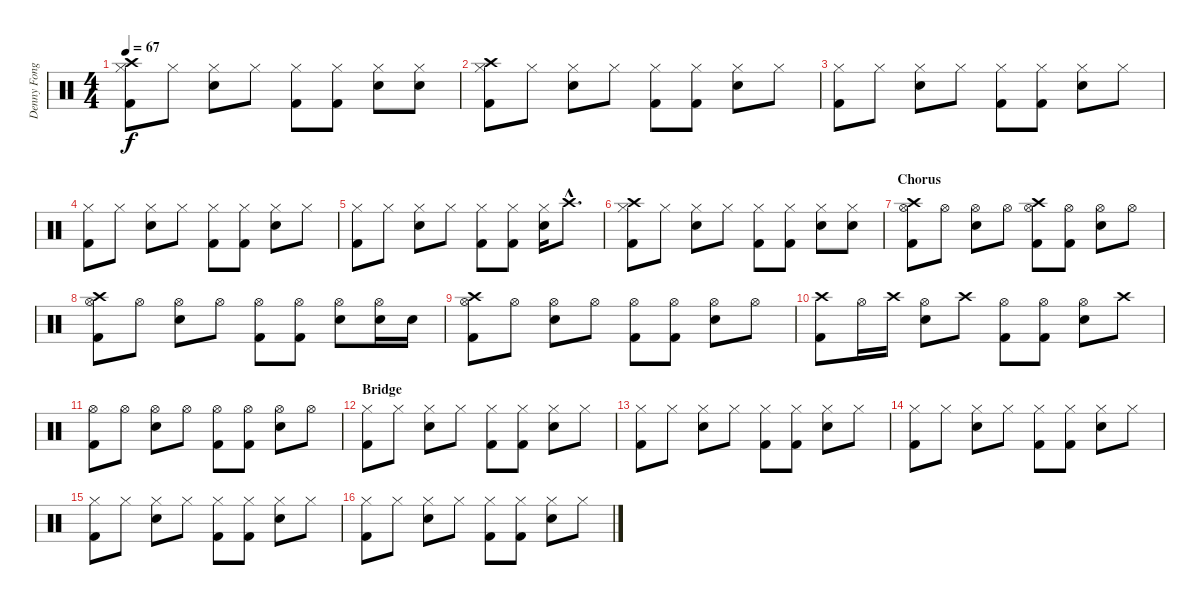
\track ("Denny Fongheiser - Drums" "Denny Fong") {instrument percussion}
\staff {score}
\articulation defaults
\ts (4 4)
\tempo 67
\clef neutral
\ks c
("Crash high (hit)" "Hi-Hat (closed)" "Kick (hit) 2").8{dy f} "Hi-Hat (closed)".8 ("Hi-Hat (closed)" "Snare (hit) 2").8 "Hi-Hat (closed)".8 ("Hi-Hat (closed)" "Kick (hit) 2").8 ("Hi-Hat (closed)" "Kick (hit) 2").8 ("Hi-Hat (closed)" "Snare (hit) 2").8 ("Hi-Hat (closed)" "Snare (hit) 2").8 |
("Hi-Hat (closed)" "Kick (hit) 2" "Crash high (hit)").8 "Hi-Hat (closed)".8 ("Hi-Hat (closed)" "Snare (hit) 2").8 "Hi-Hat (closed)".8 ("Hi-Hat (closed)" "Kick (hit) 2").8 ("Hi-Hat (closed)" "Kick (hit) 2").8 ("Hi-Hat (closed)" "Snare (hit) 2").8 "Hi-Hat (closed)".8 |
("Hi-Hat (closed)" "Kick (hit) 2").8 "Hi-Hat (closed)".8 ("Hi-Hat (closed)" "Snare (hit) 2").8 "Hi-Hat (closed)".8 ("Hi-Hat (closed)" "Kick (hit) 2").8 ("Hi-Hat (closed)" "Kick (hit) 2").8 ("Hi-Hat (closed)" "Snare (hit) 2").8 "Hi-Hat (closed)".8 |
("Hi-Hat (closed)" "Kick (hit) 2").8 "Hi-Hat (closed)".8 ("Hi-Hat (closed)" "Snare (hit) 2").8 "Hi-Hat (closed)".8 ("Hi-Hat (closed)" "Kick (hit) 2").8 ("Hi-Hat (closed)" "Kick (hit) 2").8 ("Hi-Hat (closed)" "Snare (hit) 2").8 "Hi-Hat (closed)".8 |
("Hi-Hat (closed)" "Kick (hit) 2").8 "Hi-Hat (closed)".8 ("Hi-Hat (closed)" "Snare (hit) 2").8 "Hi-Hat (closed)".8 ("Hi-Hat (closed)" "Kick (hit) 2").8 ("Hi-Hat (closed)" "Kick (hit) 2").8 ("Hi-Hat (closed)" "Snare (hit) 2").16 "Crash high (hit)"{hac}.8{d} |
("Crash high (hit)" "Hi-Hat (closed)" "Kick (hit) 2").8 "Hi-Hat (closed)".8 ("Hi-Hat (closed)" "Snare (hit) 2").8 "Hi-Hat (closed)".8 ("Hi-Hat (closed)" "Kick (hit) 2").8 ("Hi-Hat (closed)" "Kick (hit) 2").8 ("Hi-Hat (closed)" "Snare (hit) 2").8 ("Hi-Hat (closed)" "Snare (hit) 2").8 |
\section ("" "Chorus")
("Hi-Hat (open)" "Kick (hit) 2" "Crash high (hit)").8 "Hi-Hat (open)".8 ("Hi-Hat (open)" "Snare (hit) 2").8 "Hi-Hat (open)".8 ("Hi-Hat (open)" "Kick (hit) 2" "Crash high (hit)").8 ("Hi-Hat (open)" "Kick (hit) 2").8 ("Hi-Hat (open)" "Snare (hit) 2").8 "Hi-Hat (open)".8 |
("Hi-Hat (open)" "Kick (hit) 2" "Crash high (hit)").8 "Hi-Hat (open)".8 ("Hi-Hat (open)" "Snare (hit) 2").8 "Hi-Hat (open)".8 ("Hi-Hat (open)" "Kick (hit) 2").8 ("Hi-Hat (open)" "Kick (hit) 2").8 ("Hi-Hat (open)" "Snare (hit) 2").8 ("Hi-Hat (open)" "Snare (hit) 2").16 "Snare (hit) 2".16 |
("Hi-Hat (open)" "Kick (hit) 2" "Crash high (hit)").8 "Hi-Hat (open)".8 ("Hi-Hat (open)" "Snare (hit) 2").8 "Hi-Hat (open)".8 ("Hi-Hat (open)" "Kick (hit) 2").8 ("Hi-Hat (open)" "Kick (hit) 2").8 ("Hi-Hat (open)" "Snare (hit) 2").8 "Hi-Hat (open)".8 |
("Crash high (hit)" "Kick (hit) 2").8 "Hi-Hat (open)".16 "Crash high (hit)".16 ("Hi-Hat (open)" "Snare (hit) 2").8 "Crash high (hit)".8 ("Hi-Hat (open)" "Kick (hit) 2").8 ("Hi-Hat (open)" "Kick (hit) 2").8 ("Hi-Hat (open)" "Snare (hit) 2").8 "Crash high (hit)".8 |
("Hi-Hat (open)" "Kick (hit) 2").8 "Hi-Hat (open)".8 ("Hi-Hat (open)" "Snare (hit) 2").8 "Hi-Hat (open)".8 ("Hi-Hat (open)" "Kick (hit) 2").8 ("Hi-Hat (open)" "Kick (hit) 2").8 ("Hi-Hat (open)" "Snare (hit) 2").8 "Hi-Hat (open)".8 |
\section ("" "Bridge")
("Hi-Hat (closed)" "Kick (hit) 2").8 "Hi-Hat (closed)".8 ("Hi-Hat (closed)" "Snare (hit) 2").8 "Hi-Hat (closed)".8 ("Hi-Hat (closed)" "Kick (hit) 2").8 ("Hi-Hat (closed)" "Kick (hit) 2").8 ("Hi-Hat (closed)" "Snare (hit) 2").8 "Hi-Hat (closed)".8 |
("Hi-Hat (closed)" "Kick (hit) 2").8 "Hi-Hat (closed)".8 ("Hi-Hat (closed)" "Snare (hit) 2").8 "Hi-Hat (closed)".8 ("Hi-Hat (closed)" "Kick (hit) 2").8 ("Hi-Hat (closed)" "Kick (hit) 2").8 ("Hi-Hat (closed)" "Snare (hit) 2").8 "Hi-Hat (closed)".8 |
("Hi-Hat (closed)" "Kick (hit) 2").8 "Hi-Hat (closed)".8 ("Hi-Hat (closed)" "Snare (hit) 2").8 "Hi-Hat (closed)".8 ("Hi-Hat (closed)" "Kick (hit) 2").8 ("Hi-Hat (closed)" "Kick (hit) 2").8 ("Hi-Hat (closed)" "Snare (hit) 2").8 "Hi-Hat (closed)".8 |
("Hi-Hat (closed)" "Kick (hit) 2").8 "Hi-Hat (closed)".8 ("Hi-Hat (closed)" "Snare (hit) 2").8 "Hi-Hat (closed)".8 ("Hi-Hat (closed)" "Kick (hit) 2").8 ("Hi-Hat (closed)" "Kick (hit) 2").8 ("Hi-Hat (closed)" "Snare (hit) 2").8 "Hi-Hat (closed)".8 |
("Hi-Hat (closed)" "Kick (hit) 2").8 "Hi-Hat (closed)".8 ("Hi-Hat (closed)" "Snare (hit) 2").8 "Hi-Hat (closed)".8 ("Hi-Hat (closed)" "Kick (hit) 2").8 ("Hi-Hat (closed)" "Kick (hit) 2").8 ("Hi-Hat (closed)" "Snare (hit) 2").8 "Hi-Hat (closed)".8
